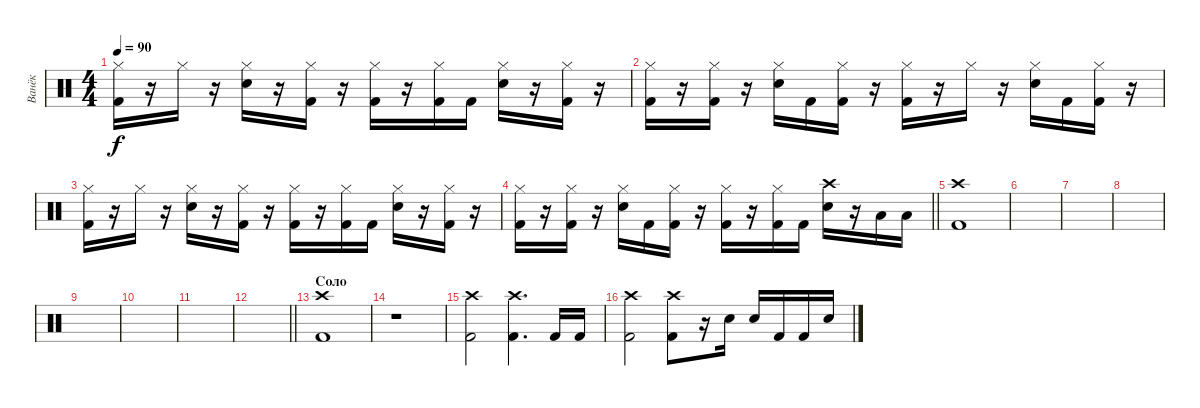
\track ("Ванёк" "Ванёк") {instrument percussion}
\staff {score}
\articulation defaults
\ts (4 4)
\tempo 90
\clef neutral
\ks c
("Hi-Hat (closed)" "Kick (hit) 2").16{dy f} r.16 "Hi-Hat (closed)".16 r.16 ("Hi-Hat (closed)" "Electric Snare (hit)").16 r.16 ("Hi-Hat (closed)" "Kick (hit) 2").16 r.16 ("Hi-Hat (closed)" "Kick (hit) 2").16 r.16 ("Hi-Hat (closed)" "Kick (hit) 2").16 "Kick (hit) 2".16 ("Hi-Hat (closed)" "Electric Snare (hit)").16 r.16 ("Hi-Hat (closed)" "Kick (hit) 2").16 r.16 |
("Hi-Hat (closed)" "Kick (hit) 2").16 r.16 ("Hi-Hat (closed)" "Kick (hit) 2").16 r.16 ("Hi-Hat (closed)" "Electric Snare (hit)").16 "Kick (hit) 2".16 ("Hi-Hat (closed)" "Kick (hit) 2").16 r.16 ("Hi-Hat (closed)" "Kick (hit) 2").16 r.16 "Hi-Hat (closed)".16 r.16 ("Hi-Hat (closed)" "Electric Snare (hit)").16 "Kick (hit) 2".16 ("Hi-Hat (closed)" "Kick (hit) 2").16 r.16 |
("Hi-Hat (closed)" "Kick (hit) 2").16 r.16 "Hi-Hat (closed)".16 r.16 ("Hi-Hat (closed)" "Electric Snare (hit)").16 r.16 ("Hi-Hat (closed)" "Kick (hit) 2").16 r.16 ("Hi-Hat (closed)" "Kick (hit) 2").16 r.16 ("Hi-Hat (closed)" "Kick (hit) 2").16 "Kick (hit) 2".16 ("Hi-Hat (closed)" "Electric Snare (hit)").16 r.16 ("Hi-Hat (closed)" "Kick (hit) 2").16 r.16 |
\barLineRight lightlight
("Hi-Hat (closed)" "Kick (hit) 2").16 r.16 ("Hi-Hat (closed)" "Kick (hit) 2").16 r.16 ("Hi-Hat (closed)" "Electric Snare (hit)").16 "Kick (hit) 2".16 ("Hi-Hat (closed)" "Kick (hit) 2").16 r.16 ("Hi-Hat (closed)" "Kick (hit) 2").16 r.16 ("Hi-Hat (closed)" "Kick (hit) 2").16 "Kick (hit) 2".16 ("Crash high (hit)" "Electric Snare (hit)").16 r.16 "Low Tom (hit)".16 "Low Tom (hit)".16 |
("Crash high (hit)" "Kick (hit) 2").1 |
|
|
|
|
|
|
\barLineRight lightlight
|
\section ("" "Соло")
("Crash high (hit)" "Kick (hit) 2").1 |
r.1 |
("Crash high (hit)" "Kick (hit) 2").2 ("Crash high (hit)" "Kick (hit) 2").4{d} "Kick (hit) 2".16 "Kick (hit) 2".16 |
("Crash high (hit)" "Kick (hit) 2").2 ("Crash high (hit)" "Kick (hit) 2").8 r.16 "Electric Snare (hit)".16 "Electric Snare (hit)".16 "Kick (hit) 2".16 "Kick (hit) 2".16 "Electric Snare (hit)".16
